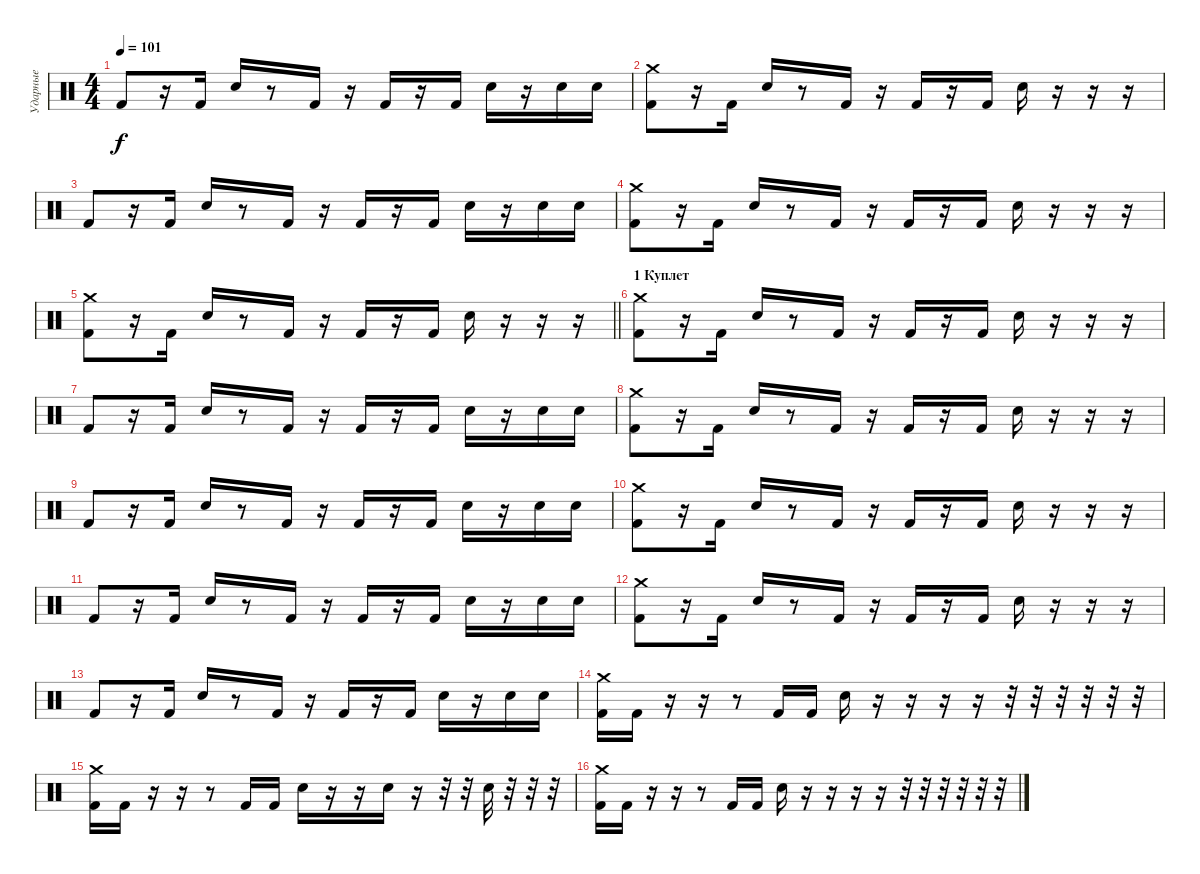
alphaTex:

\track ("Ударные" "Ударные") {instrument percussion}
\staff {score}
\articulation defaults
\ts (4 4)
\tempo 101
\clef neutral
\ks c "Kick (hit) 2".8{dy f}
r.16 "Kick (hit) 2".16 "Snare (hit) 2".16 r.8 "Kick (hit) 2".16 r.16 "Kick (hit) 2".16 r.16 "Kick (hit) 2".16 "Snare (hit) 2".16 r.16 "Snare (hit) 2".16 "Snare (hit) 2".16 |
("Crash medium (hit)" "Kick (hit) 2").8 r.16 "Kick (hit) 2".16 "Snare (hit) 2".16 r.8 "Kick (hit) 2".16 r.16 "Kick (hit) 2".16 r.16 "Kick (hit) 2".16 "Snare (hit) 2".16 r.16 r.16 r.16 |
"Kick (hit) 2".8 r.16 "Kick (hit) 2".16 "Snare (hit) 2".16 r.8 "Kick (hit) 2".16 r.16 "Kick (hit) 2".16 r.16 "Kick (hit) 2".16 "Snare (hit) 2".16 r.16 "Snare (hit) 2".16 "Snare (hit) 2".16 |
("Crash medium (hit)" "Kick (hit) 2").8 r.16 "Kick (hit) 2".16 "Snare (hit) 2".16 r.8 "Kick (hit) 2".16 r.16 "Kick (hit) 2".16 r.16 "Kick (hit) 2".16 "Snare (hit) 2".16 r.16 r.16 r.16 |
\barLineRight lightlight
("Crash medium (hit)" "Kick (hit) 2").8 r.16 "Kick (hit) 2".16 "Snare (hit) 2".16 r.8 "Kick (hit) 2".16 r.16 "Kick (hit) 2".16 r.16 "Kick (hit) 2".16 "Snare (hit) 2".16 r.16 r.16 r.16 |
\section ("" "1 Куплет")
("Crash medium (hit)" "Kick (hit) 2").8 r.16 "Kick (hit) 2".16 "Snare (hit) 2".16 r.8 "Kick (hit) 2".16 r.16 "Kick (hit) 2".16 r.16 "Kick (hit) 2".16 "Snare (hit) 2".16 r.16 r.16 r.16 |
"Kick (hit) 2".8 r.16 "Kick (hit) 2".16 "Snare (hit) 2".16 r.8 "Kick (hit) 2".16 r.16 "Kick (hit) 2".16 r.16 "Kick (hit) 2".16 "Snare (hit) 2".16 r.16 "Snare (hit) 2".16 "Snare (hit) 2".16 |
("Crash medium (hit)" "Kick (hit) 2").8 r.16 "Kick (hit) 2".16 "Snare (hit) 2".16 r.8 "Kick (hit) 2".16 r.16 "Kick (hit) 2".16 r.16 "Kick (hit) 2".16 "Snare (hit) 2".16 r.16 r.16 r.16 |
"Kick (hit) 2".8 r.16 "Kick (hit) 2".16 "Snare (hit) 2".16 r.8 "Kick (hit) 2".16 r.16 "Kick (hit) 2".16 r.16 "Kick (hit) 2".16 "Snare (hit) 2".16 r.16 "Snare (hit) 2".16 "Snare (hit) 2".16 |
("Crash medium (hit)" "Kick (hit) 2").8 r.16 "Kick (hit) 2".16 "Snare (hit) 2".16 r.8 "Kick (hit) 2".16 r.16 "Kick (hit) 2".16 r.16 "Kick (hit) 2".16 "Snare (hit) 2".16 r.16 r.16 r.16 |
"Kick (hit) 2".8 r.16 "Kick (hit) 2".16 "Snare (hit) 2".16 r.8 "Kick (hit) 2".16 r.16 "Kick (hit) 2".16 r.16 "Kick (hit) 2".16 "Snare (hit) 2".16 r.16 "Snare (hit) 2".16 "Snare (hit) 2".16 |
("Crash medium (hit)" "Kick (hit) 2").8 r.16 "Kick (hit) 2".16 "Snare (hit) 2".16 r.8 "Kick (hit) 2".16 r.16 "Kick (hit) 2".16 r.16 "Kick (hit) 2".16 "Snare (hit) 2".16 r.16 r.16 r.16 |
"Kick (hit) 2".8 r.16 "Kick (hit) 2".16 "Snare (hit) 2".16 r.8 "Kick (hit) 2".16 r.16 "Kick (hit) 2".16 r.16 "Kick (hit) 2".16 "Snare (hit) 2".16 r.16 "Snare (hit) 2".16 "Snare (hit) 2".16 |
("Crash medium (hit)" "Kick (hit) 2").16 "Kick (hit) 2".16 r.16 r.16 r.8 "Kick (hit) 2".16 "Kick (hit) 2".16 "Snare (hit) 2".16 r.16 r.16 r.16 r.16 r.32 r.32 r.32 r.32 r.32 r.32 |
("Crash medium (hit)" "Kick (hit) 2").16 "Kick (hit) 2".16 r.16 r.16 r.8 "Kick (hit) 2".16 "Kick (hit) 2".16 "Snare (hit) 2".16 r.16 r.16 "Snare (hit) 2".16 r.16 r.32 r.32 "Snare (hit) 2".32 r.32 r.32 r.32 |
("Crash medium (hit)" "Kick (hit) 2").16 "Kick (hit) 2".16 r.16 r.16 r.8 "Kick (hit) 2".16 "Kick (hit) 2".16 "Snare (hit) 2".16 r.16 r.16 r.16 r.16 r.32 r.32 r.32 r.32 r.32 r.32
